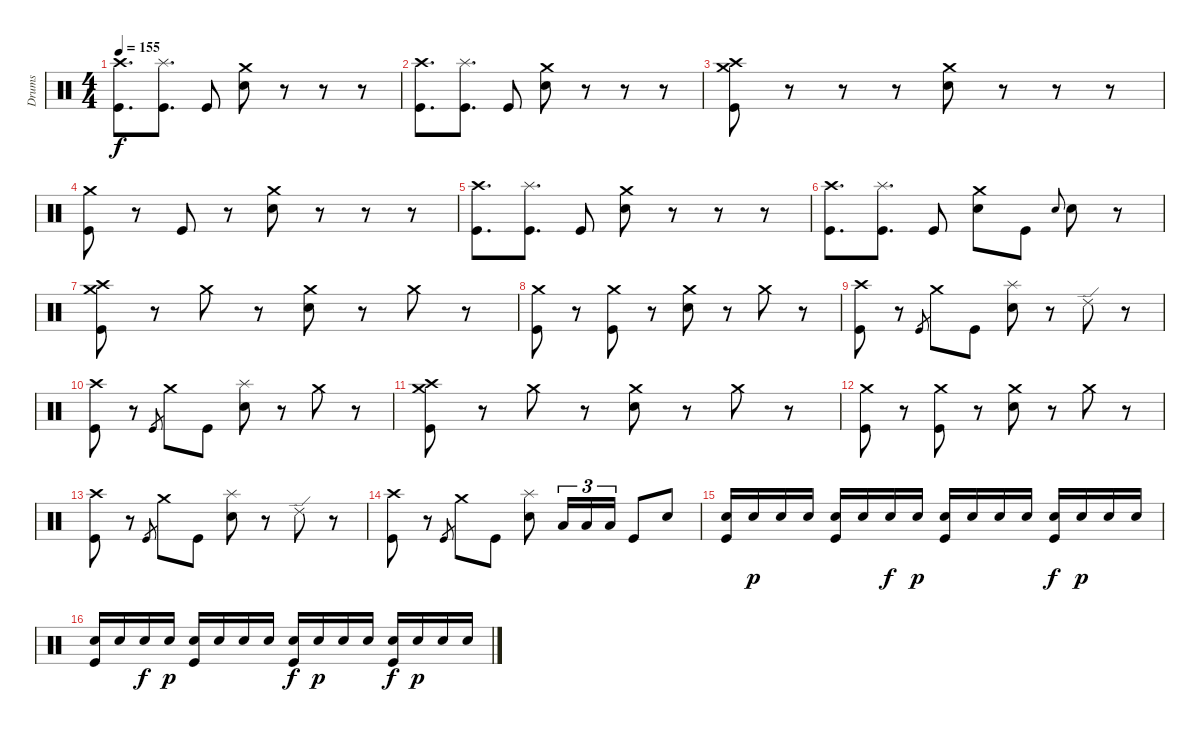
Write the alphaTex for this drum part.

\track ("Drums" "Drums") {instrument percussion}
\staff {score}
\articulation defaults
\ts (4 4)
\tempo 155
\clef neutral
\ks c
("Crash high (hit)" "Kick (hit)").8{d dy f} ("Splash (hit)" "Kick (hit)").8{d} "Kick (hit)".8 ("Crash medium (hit)" "Electric Snare (hit)").8 r.8 r.8 r.8 |
("Crash high (hit)" "Kick (hit)").8{d} ("Splash (hit)" "Kick (hit)").8{d} "Kick (hit)".8 ("Crash medium (hit)" "Electric Snare (hit)").8 r.8 r.8 r.8 |
("Crash high (hit)" "Crash medium (hit)" "Kick (hit)").8 r.8 r.8 r.8 ("Crash medium (hit)" "Electric Snare (hit)").8 r.8 r.8 r.8 |
("Crash medium (hit)" "Kick (hit)").8 r.8 "Kick (hit)".8 r.8 ("Crash medium (hit)" "Electric Snare (hit)").8 r.8 r.8 r.8 |
("Crash high (hit)" "Kick (hit)").8{d} ("Splash (hit)" "Kick (hit)").8{d} "Kick (hit)".8 ("Crash medium (hit)" "Electric Snare (hit)").8 r.8 r.8 r.8 |
("Crash high (hit)" "Kick (hit)").8{d} ("Splash (hit)" "Kick (hit)").8{d} "Kick (hit)".8 ("Crash medium (hit)" "Electric Snare (hit)").8 "Kick (hit)".8 "Electric Snare (hit)".8{gr onbeat} "Electric Snare (hit)".8 r.8 |
("Crash medium (hit)" "Crash high (hit)" "Kick (hit)").8 r.8 "Crash medium (hit)".8 r.8 ("Crash medium (hit)" "Electric Snare (hit)").8 r.8 "Crash medium (hit)".8 r.8 |
("Crash medium (hit)" "Kick (hit)").8 r.8 ("Crash medium (hit)" "Kick (hit)").8 r.8 ("Crash medium (hit)" "Electric Snare (hit)").8 r.8 "Crash medium (hit)".8 r.8 |
("Crash high (hit)" "Kick (hit)").8 r.8 "Kick (hit)".8{gr} "Crash medium (hit)".8 "Kick (hit)".8 ("Splash (hit)" "Electric Snare (hit)").8 r.8 "Ride (edge) 2".8 r.8 |
("Crash high (hit)" "Kick (hit)").8 r.8 "Kick (hit)".8{gr} "Crash medium (hit)".8 "Kick (hit)".8 ("Splash (hit)" "Electric Snare (hit)").8 r.8 "Crash medium (hit)".8 r.8 |
("Crash medium (hit)" "Crash high (hit)" "Kick (hit)").8 r.8 "Crash medium (hit)".8 r.8 ("Crash medium (hit)" "Electric Snare (hit)").8 r.8 "Crash medium (hit)".8 r.8 |
("Crash medium (hit)" "Kick (hit)").8 r.8 ("Crash medium (hit)" "Kick (hit)").8 r.8 ("Crash medium (hit)" "Electric Snare (hit)").8 r.8 "Crash medium (hit)".8 r.8 |
("Crash high (hit)" "Kick (hit)").8 r.8 "Kick (hit)".8{gr} "Crash medium (hit)".8 "Kick (hit)".8 ("Splash (hit)" "Electric Snare (hit)").8 r.8 "Ride (edge) 2".8 r.8 |
("Crash high (hit)" "Kick (hit)").8 r.8 "Kick (hit)".8{gr} "Crash medium (hit)".8 "Kick (hit)".8 ("Splash (hit)" "Electric Snare (hit)").8 "Low Tom (hit)".16{tu (3 2)} "Low Tom (hit)".16{tu (3 2)} "Low Tom (hit)".16{tu (3 2)} "Kick (hit)".8 "Electric Snare (hit)".8 |
("Electric Snare (hit)" "Kick (hit)").16 "Electric Snare (hit)".16{dy p} "Electric Snare (hit)".16 "Electric Snare (hit)".16 ("Electric Snare (hit)" "Kick (hit)").16 "Electric Snare (hit)".16 "Electric Snare (hit)".16{dy f} "Electric Snare (hit)".16{dy p} ("Electric Snare (hit)" "Kick (hit)").16 "Electric Snare (hit)".16 "Electric Snare (hit)".16 "Electric Snare (hit)".16 ("Electric Snare (hit)" "Kick (hit)").16{dy f} "Electric Snare (hit)".16{dy p} "Electric Snare (hit)".16 "Electric Snare (hit)".16 |
("Electric Snare (hit)" "Kick (hit)").16 "Electric Snare (hit)".16 "Electric Snare (hit)".16{dy f} "Electric Snare (hit)".16{dy p} ("Electric Snare (hit)" "Kick (hit)").16 "Electric Snare (hit)".16 "Electric Snare (hit)".16 "Electric Snare (hit)".16 ("Electric Snare (hit)" "Kick (hit)").16{dy f} "Electric Snare (hit)".16{dy p} "Electric Snare (hit)".16 "Electric Snare (hit)".16 ("Electric Snare (hit)" "Kick (hit)").16{dy f} "Electric Snare (hit)".16{dy p} "Electric Snare (hit)".16 "Electric Snare (hit)".16
